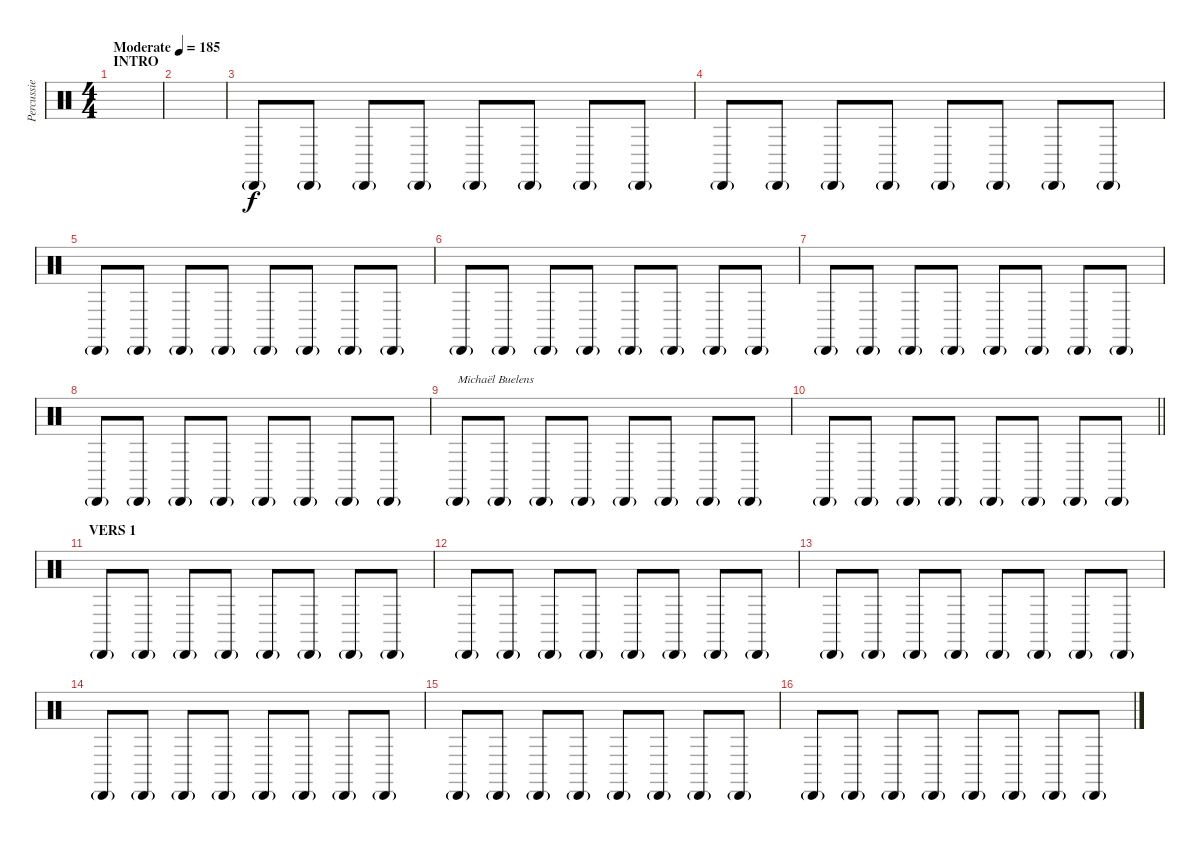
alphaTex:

\track ("Percussie" "Percussie") {instrument percussion}
\staff {score}
\articulation defaults
\ts (4 4)
\section ("" "INTRO")
\tempo (185 "Moderate")
\clef neutral
\ks c
|
|
"Cabasa (hit)"{g}.8 "Cabasa (hit)"{g}.8 "Cabasa (hit)"{g}.8 "Cabasa (hit)"{g}.8 "Cabasa (hit)"{g}.8 "Cabasa (hit)"{g}.8 "Cabasa (hit)"{g}.8 "Cabasa (hit)"{g}.8 |
"Cabasa (hit)"{g}.8 "Cabasa (hit)"{g}.8 "Cabasa (hit)"{g}.8 "Cabasa (hit)"{g}.8 "Cabasa (hit)"{g}.8 "Cabasa (hit)"{g}.8 "Cabasa (hit)"{g}.8 "Cabasa (hit)"{g}.8 |
"Cabasa (hit)"{g}.8 "Cabasa (hit)"{g}.8 "Cabasa (hit)"{g}.8 "Cabasa (hit)"{g}.8 "Cabasa (hit)"{g}.8 "Cabasa (hit)"{g}.8 "Cabasa (hit)"{g}.8 "Cabasa (hit)"{g}.8 |
"Cabasa (hit)"{g}.8 "Cabasa (hit)"{g}.8 "Cabasa (hit)"{g}.8 "Cabasa (hit)"{g}.8 "Cabasa (hit)"{g}.8 "Cabasa (hit)"{g}.8 "Cabasa (hit)"{g}.8 "Cabasa (hit)"{g}.8 |
"Cabasa (hit)"{g}.8 "Cabasa (hit)"{g}.8 "Cabasa (hit)"{g}.8 "Cabasa (hit)"{g}.8 "Cabasa (hit)"{g}.8 "Cabasa (hit)"{g}.8 "Cabasa (hit)"{g}.8 "Cabasa (hit)"{g}.8 |
"Cabasa (hit)"{g}.8 "Cabasa (hit)"{g}.8 "Cabasa (hit)"{g}.8 "Cabasa (hit)"{g}.8 "Cabasa (hit)"{g}.8 "Cabasa (hit)"{g}.8 "Cabasa (hit)"{g}.8 "Cabasa (hit)"{g}.8 |
"Cabasa (hit)"{g}.8{txt "Michaël Buelens"} "Cabasa (hit)"{g}.8 "Cabasa (hit)"{g}.8 "Cabasa (hit)"{g}.8 "Cabasa (hit)"{g}.8 "Cabasa (hit)"{g}.8 "Cabasa (hit)"{g}.8 "Cabasa (hit)"{g}.8 |
\barLineRight lightlight "Cabasa (hit)"{g}.8 "Cabasa (hit)"{g}.8 "Cabasa (hit)"{g}.8 "Cabasa (hit)"{g}.8 "Cabasa (hit)"{g}.8 "Cabasa (hit)"{g}.8 "Cabasa (hit)"{g}.8 "Cabasa (hit)"{g}.8
|
\section ("" "VERS 1")
"Cabasa (hit)"{g}.8 "Cabasa (hit)"{g}.8 "Cabasa (hit)"{g}.8 "Cabasa (hit)"{g}.8 "Cabasa (hit)"{g}.8 "Cabasa (hit)"{g}.8 "Cabasa (hit)"{g}.8 "Cabasa (hit)"{g}.8 |
"Cabasa (hit)"{g}.8 "Cabasa (hit)"{g}.8 "Cabasa (hit)"{g}.8 "Cabasa (hit)"{g}.8 "Cabasa (hit)"{g}.8 "Cabasa (hit)"{g}.8 "Cabasa (hit)"{g}.8 "Cabasa (hit)"{g}.8 |
"Cabasa (hit)"{g}.8 "Cabasa (hit)"{g}.8 "Cabasa (hit)"{g}.8 "Cabasa (hit)"{g}.8 "Cabasa (hit)"{g}.8 "Cabasa (hit)"{g}.8 "Cabasa (hit)"{g}.8 "Cabasa (hit)"{g}.8 |
"Cabasa (hit)"{g}.8 "Cabasa (hit)"{g}.8 "Cabasa (hit)"{g}.8 "Cabasa (hit)"{g}.8 "Cabasa (hit)"{g}.8 "Cabasa (hit)"{g}.8 "Cabasa (hit)"{g}.8 "Cabasa (hit)"{g}.8 |
"Cabasa (hit)"{g}.8 "Cabasa (hit)"{g}.8 "Cabasa (hit)"{g}.8 "Cabasa (hit)"{g}.8 "Cabasa (hit)"{g}.8 "Cabasa (hit)"{g}.8 "Cabasa (hit)"{g}.8 "Cabasa (hit)"{g}.8 |
"Cabasa (hit)"{g}.8 "Cabasa (hit)"{g}.8 "Cabasa (hit)"{g}.8 "Cabasa (hit)"{g}.8 "Cabasa (hit)"{g}.8 "Cabasa (hit)"{g}.8 "Cabasa (hit)"{g}.8 "Cabasa (hit)"{g}.8
